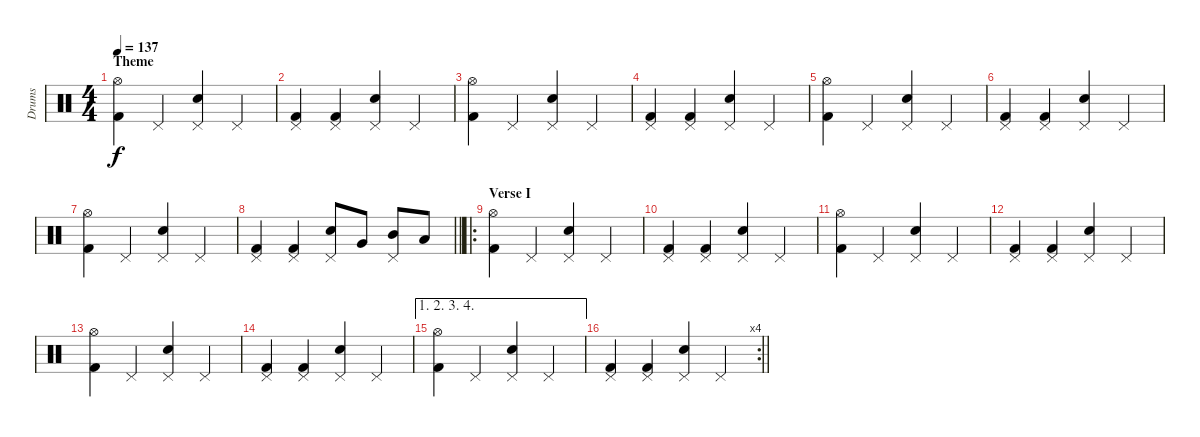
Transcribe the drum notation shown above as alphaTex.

\track ("Drums" "Drums") {instrument percussion}
\staff {score}
\articulation defaults
\ts (4 4)
\section ("" "Theme")
\tempo 137
\clef neutral
\ks c
("Hi-Hat (open)" "Kick (hit) 2").4{dy f} "Pedal Hi-Hat (hit)".4 ("Pedal Hi-Hat (hit)" "Snare (hit) 2").4 "Pedal Hi-Hat (hit)".4 |
("Pedal Hi-Hat (hit)" "Kick (hit) 2").4 ("Pedal Hi-Hat (hit)" "Kick (hit) 2").4 ("Pedal Hi-Hat (hit)" "Snare (hit) 2").4 "Pedal Hi-Hat (hit)".4 |
("Hi-Hat (open)" "Kick (hit) 2").4 "Pedal Hi-Hat (hit)".4 ("Pedal Hi-Hat (hit)" "Snare (hit) 2").4 "Pedal Hi-Hat (hit)".4 |
("Pedal Hi-Hat (hit)" "Kick (hit) 2").4 ("Pedal Hi-Hat (hit)" "Kick (hit) 2").4 ("Pedal Hi-Hat (hit)" "Snare (hit) 2").4 "Pedal Hi-Hat (hit)".4 |
("Hi-Hat (open)" "Kick (hit) 2").4 "Pedal Hi-Hat (hit)".4 ("Pedal Hi-Hat (hit)" "Snare (hit) 2").4 "Pedal Hi-Hat (hit)".4 |
("Pedal Hi-Hat (hit)" "Kick (hit) 2").4 ("Pedal Hi-Hat (hit)" "Kick (hit) 2").4 ("Pedal Hi-Hat (hit)" "Snare (hit) 2").4 "Pedal Hi-Hat (hit)".4 |
("Hi-Hat (open)" "Kick (hit) 2").4 "Pedal Hi-Hat (hit)".4 ("Pedal Hi-Hat (hit)" "Snare (hit) 2").4 "Pedal Hi-Hat (hit)".4 |
\barLineRight lightlight
("Pedal Hi-Hat (hit)" "Kick (hit) 2").4 ("Pedal Hi-Hat (hit)" "Kick (hit) 2").4 ("Pedal Hi-Hat (hit)" "Snare (hit) 2").8 "Very Low Tom (hit)".8 ("Pedal Hi-Hat (hit)" "Mid Tom (hit)").8 "Low Tom (hit)".8 |
\ro
\section ("" "Verse I")
("Hi-Hat (open)" "Kick (hit) 2").4 "Pedal Hi-Hat (hit)".4 ("Pedal Hi-Hat (hit)" "Snare (hit) 2").4 "Pedal Hi-Hat (hit)".4 |
("Pedal Hi-Hat (hit)" "Kick (hit) 2").4 ("Pedal Hi-Hat (hit)" "Kick (hit) 2").4 ("Pedal Hi-Hat (hit)" "Snare (hit) 2").4 "Pedal Hi-Hat (hit)".4 |
("Hi-Hat (open)" "Kick (hit) 2").4 "Pedal Hi-Hat (hit)".4 ("Pedal Hi-Hat (hit)" "Snare (hit) 2").4 "Pedal Hi-Hat (hit)".4 |
("Pedal Hi-Hat (hit)" "Kick (hit) 2").4 ("Pedal Hi-Hat (hit)" "Kick (hit) 2").4 ("Pedal Hi-Hat (hit)" "Snare (hit) 2").4 "Pedal Hi-Hat (hit)".4 |
("Hi-Hat (open)" "Kick (hit) 2").4 "Pedal Hi-Hat (hit)".4 ("Pedal Hi-Hat (hit)" "Snare (hit) 2").4 "Pedal Hi-Hat (hit)".4 |
("Pedal Hi-Hat (hit)" "Kick (hit) 2").4 ("Pedal Hi-Hat (hit)" "Kick (hit) 2").4 ("Pedal Hi-Hat (hit)" "Snare (hit) 2").4 "Pedal Hi-Hat (hit)".4 |
\ae (1 2 3 4)
("Hi-Hat (open)" "Kick (hit) 2").4 "Pedal Hi-Hat (hit)".4 ("Pedal Hi-Hat (hit)" "Snare (hit) 2").4 "Pedal Hi-Hat (hit)".4 |
\rc 4
\barLineRight lightlight
("Pedal Hi-Hat (hit)" "Kick (hit) 2").4 ("Pedal Hi-Hat (hit)" "Kick (hit) 2").4 ("Pedal Hi-Hat (hit)" "Snare (hit) 2").4 "Pedal Hi-Hat (hit)".4
